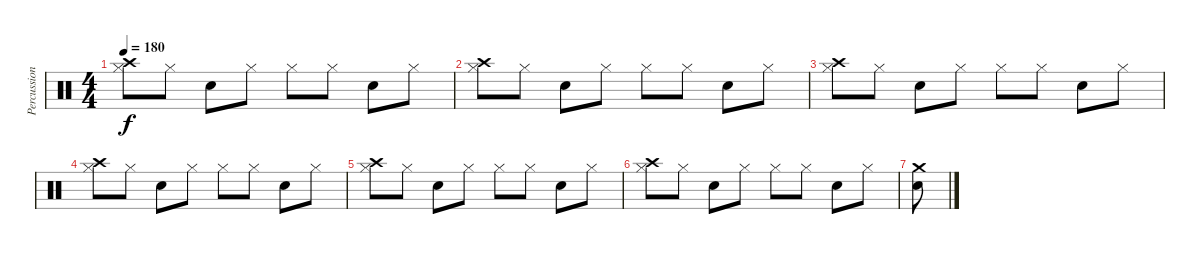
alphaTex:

\track ("Percussion" "Percussion") {instrument percussion}
\staff {score}
\articulation defaults
\ts (4 4)
\tempo 180
\clef neutral
\ks c
("Crash high (hit)" "Hi-Hat (closed)").8{dy f} "Hi-Hat (closed)".8 "Electric Snare (hit)".8 "Hi-Hat (closed)".8 "Hi-Hat (closed)".8 "Hi-Hat (closed)".8 "Electric Snare (hit)".8 "Hi-Hat (closed)".8 |
("Crash high (hit)" "Hi-Hat (closed)").8 "Hi-Hat (closed)".8 "Electric Snare (hit)".8 "Hi-Hat (closed)".8 "Hi-Hat (closed)".8 "Hi-Hat (closed)".8 "Electric Snare (hit)".8 "Hi-Hat (closed)".8 |
("Crash high (hit)" "Hi-Hat (closed)").8 "Hi-Hat (closed)".8 "Electric Snare (hit)".8 "Hi-Hat (closed)".8 "Hi-Hat (closed)".8 "Hi-Hat (closed)".8 "Electric Snare (hit)".8 "Hi-Hat (closed)".8 |
("Crash high (hit)" "Hi-Hat (closed)").8 "Hi-Hat (closed)".8 "Electric Snare (hit)".8 "Hi-Hat (closed)".8 "Hi-Hat (closed)".8 "Hi-Hat (closed)".8 "Electric Snare (hit)".8 "Hi-Hat (closed)".8 |
("Crash high (hit)" "Hi-Hat (closed)").8 "Hi-Hat (closed)".8 "Electric Snare (hit)".8 "Hi-Hat (closed)".8 "Hi-Hat (closed)".8 "Hi-Hat (closed)".8 "Electric Snare (hit)".8 "Hi-Hat (closed)".8 |
("Crash high (hit)" "Hi-Hat (closed)").8 "Hi-Hat (closed)".8 "Electric Snare (hit)".8 "Hi-Hat (closed)".8 "Hi-Hat (closed)".8 "Hi-Hat (closed)".8 "Electric Snare (hit)".8 "Hi-Hat (closed)".8 |
("Crash medium (hit)" "Electric Snare (hit)").8
